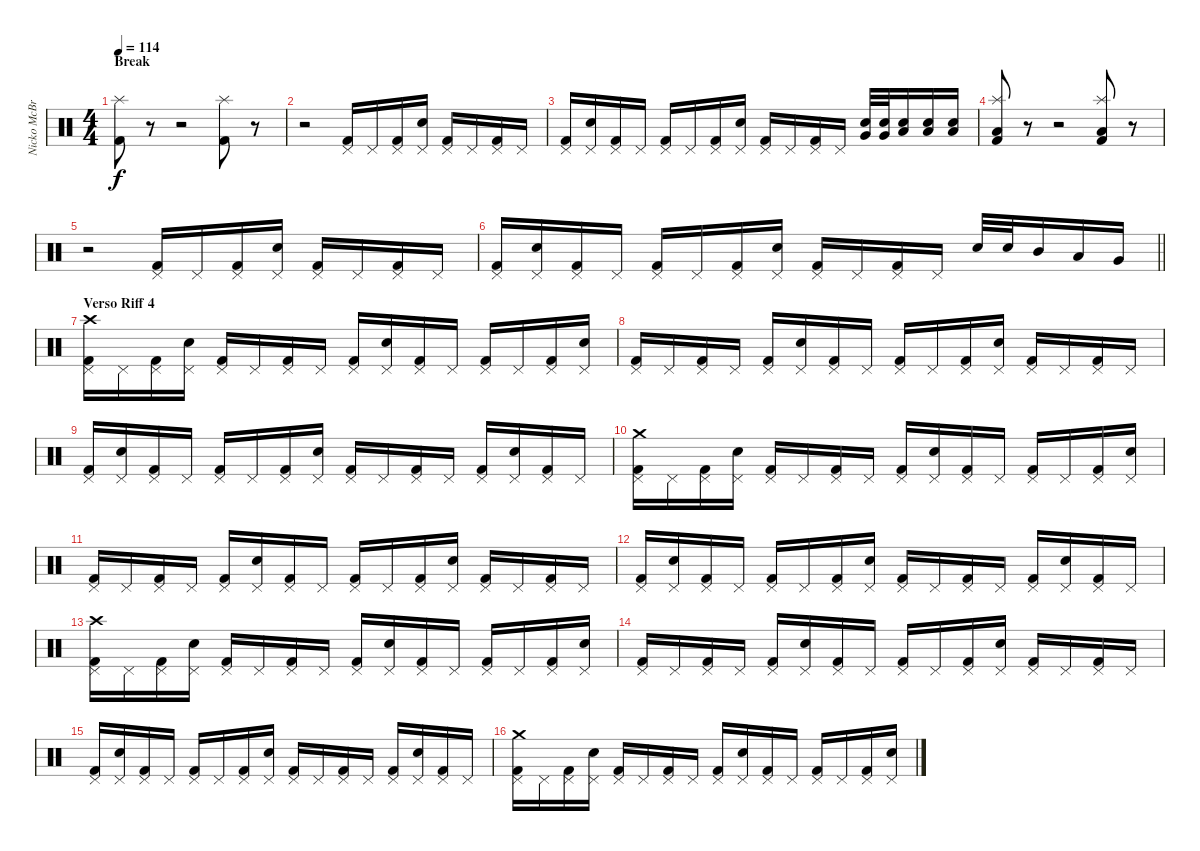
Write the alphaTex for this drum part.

\track ("Nicko McBrain" "Nicko McBr") {instrument percussion}
\staff {score}
\articulation defaults
\ts (4 4)
\section ("" "Break")
\tempo 114
\clef neutral
\ks c
("Kick (hit) 2" "Splash (hit)").8{dy f} r.8 r.2 ("Kick (hit) 2" "Splash (hit)").8 r.8 |
r.2 ("Kick (hit) 2" "Pedal Hi-Hat (hit)").16 "Pedal Hi-Hat (hit)".16 ("Kick (hit) 2" "Pedal Hi-Hat (hit)").16 ("Snare (hit) 2" "Pedal Hi-Hat (hit)").16 ("Kick (hit) 2" "Pedal Hi-Hat (hit)").16 "Pedal Hi-Hat (hit)".16 ("Kick (hit) 2" "Pedal Hi-Hat (hit)").16 "Pedal Hi-Hat (hit)".16 |
("Kick (hit) 2" "Pedal Hi-Hat (hit)").16 ("Snare (hit) 2" "Pedal Hi-Hat (hit)").16 ("Kick (hit) 2" "Pedal Hi-Hat (hit)").16 "Pedal Hi-Hat (hit)".16 ("Kick (hit) 2" "Pedal Hi-Hat (hit)").16 "Pedal Hi-Hat (hit)".16 ("Kick (hit) 2" "Pedal Hi-Hat (hit)").16 ("Snare (hit) 2" "Pedal Hi-Hat (hit)").16 ("Kick (hit) 2" "Pedal Hi-Hat (hit)").16 "Pedal Hi-Hat (hit)".16 ("Kick (hit) 2" "Pedal Hi-Hat (hit)").16 "Pedal Hi-Hat (hit)".16 ("Snare (hit) 2" "Very Low Tom (hit)").32 ("Snare (hit) 2" "Very Low Tom (hit)").32 ("Snare (hit) 2" "Low Floor Tom (hit)").16 ("Snare (hit) 2" "Low Tom (hit)").16 ("Snare (hit) 2" "Low Tom (hit)").16 |
("Low Floor Tom (hit)" "Kick (hit) 2" "Splash (hit)").8 r.8 r.2 ("Low Floor Tom (hit)" "Kick (hit) 2" "Splash (hit)").8 r.8 |
r.2 ("Kick (hit) 2" "Pedal Hi-Hat (hit)").16 "Pedal Hi-Hat (hit)".16 ("Kick (hit) 2" "Pedal Hi-Hat (hit)").16 ("Snare (hit) 2" "Pedal Hi-Hat (hit)").16 ("Kick (hit) 2" "Pedal Hi-Hat (hit)").16 "Pedal Hi-Hat (hit)".16 ("Kick (hit) 2" "Pedal Hi-Hat (hit)").16 "Pedal Hi-Hat (hit)".16 |
\barLineRight lightlight
("Kick (hit) 2" "Pedal Hi-Hat (hit)").16 ("Snare (hit) 2" "Pedal Hi-Hat (hit)").16 ("Kick (hit) 2" "Pedal Hi-Hat (hit)").16 "Pedal Hi-Hat (hit)".16 ("Kick (hit) 2" "Pedal Hi-Hat (hit)").16 "Pedal Hi-Hat (hit)".16 ("Kick (hit) 2" "Pedal Hi-Hat (hit)").16 ("Snare (hit) 2" "Pedal Hi-Hat (hit)").16 ("Kick (hit) 2" "Pedal Hi-Hat (hit)").16 "Pedal Hi-Hat (hit)".16 ("Kick (hit) 2" "Pedal Hi-Hat (hit)").16 "Pedal Hi-Hat (hit)".16 "Snare (hit) 2".32 "Snare (hit) 2".32 "Mid Tom (hit)".16 "Low Tom (hit)".16 "Very Low Tom (hit)".16 |
\section ("" "Verso Riff 4")
("Kick (hit) 2" "Pedal Hi-Hat (hit)" "Crash high (hit)").16 "Pedal Hi-Hat (hit)".16 ("Kick (hit) 2" "Pedal Hi-Hat (hit)").16 ("Snare (hit) 2" "Pedal Hi-Hat (hit)").16 ("Kick (hit) 2" "Pedal Hi-Hat (hit)").16 "Pedal Hi-Hat (hit)".16 ("Kick (hit) 2" "Pedal Hi-Hat (hit)").16 "Pedal Hi-Hat (hit)".16 ("Kick (hit) 2" "Pedal Hi-Hat (hit)").16 ("Snare (hit) 2" "Pedal Hi-Hat (hit)").16 ("Kick (hit) 2" "Pedal Hi-Hat (hit)").16 "Pedal Hi-Hat (hit)".16 ("Kick (hit) 2" "Pedal Hi-Hat (hit)").16 "Pedal Hi-Hat (hit)".16 ("Kick (hit) 2" "Pedal Hi-Hat (hit)").16 ("Snare (hit) 2" "Pedal Hi-Hat (hit)").16 |
("Kick (hit) 2" "Pedal Hi-Hat (hit)").16 "Pedal Hi-Hat (hit)".16 ("Kick (hit) 2" "Pedal Hi-Hat (hit)").16 "Pedal Hi-Hat (hit)".16 ("Kick (hit) 2" "Pedal Hi-Hat (hit)").16 ("Snare (hit) 2" "Pedal Hi-Hat (hit)").16 ("Kick (hit) 2" "Pedal Hi-Hat (hit)").16 "Pedal Hi-Hat (hit)".16 ("Kick (hit) 2" "Pedal Hi-Hat (hit)").16 "Pedal Hi-Hat (hit)".16 ("Kick (hit) 2" "Pedal Hi-Hat (hit)").16 ("Snare (hit) 2" "Pedal Hi-Hat (hit)").16 ("Kick (hit) 2" "Pedal Hi-Hat (hit)").16 "Pedal Hi-Hat (hit)".16 ("Kick (hit) 2" "Pedal Hi-Hat (hit)").16 "Pedal Hi-Hat (hit)".16 |
("Kick (hit) 2" "Pedal Hi-Hat (hit)").16 ("Snare (hit) 2" "Pedal Hi-Hat (hit)").16 ("Kick (hit) 2" "Pedal Hi-Hat (hit)").16 "Pedal Hi-Hat (hit)".16 ("Kick (hit) 2" "Pedal Hi-Hat (hit)").16 "Pedal Hi-Hat (hit)".16 ("Kick (hit) 2" "Pedal Hi-Hat (hit)").16 ("Snare (hit) 2" "Pedal Hi-Hat (hit)").16 ("Kick (hit) 2" "Pedal Hi-Hat (hit)").16 "Pedal Hi-Hat (hit)".16 ("Kick (hit) 2" "Pedal Hi-Hat (hit)").16 "Pedal Hi-Hat (hit)".16 ("Kick (hit) 2" "Pedal Hi-Hat (hit)").16 ("Snare (hit) 2" "Pedal Hi-Hat (hit)").16 ("Kick (hit) 2" "Pedal Hi-Hat (hit)").16 "Pedal Hi-Hat (hit)".16 |
("Kick (hit) 2" "Pedal Hi-Hat (hit)" "Crash medium (hit)").16 "Pedal Hi-Hat (hit)".16 ("Kick (hit) 2" "Pedal Hi-Hat (hit)").16 ("Snare (hit) 2" "Pedal Hi-Hat (hit)").16 ("Kick (hit) 2" "Pedal Hi-Hat (hit)").16 "Pedal Hi-Hat (hit)".16 ("Kick (hit) 2" "Pedal Hi-Hat (hit)").16 "Pedal Hi-Hat (hit)".16 ("Kick (hit) 2" "Pedal Hi-Hat (hit)").16 ("Snare (hit) 2" "Pedal Hi-Hat (hit)").16 ("Kick (hit) 2" "Pedal Hi-Hat (hit)").16 "Pedal Hi-Hat (hit)".16 ("Kick (hit) 2" "Pedal Hi-Hat (hit)").16 "Pedal Hi-Hat (hit)".16 ("Kick (hit) 2" "Pedal Hi-Hat (hit)").16 ("Snare (hit) 2" "Pedal Hi-Hat (hit)").16 |
("Kick (hit) 2" "Pedal Hi-Hat (hit)").16 "Pedal Hi-Hat (hit)".16 ("Kick (hit) 2" "Pedal Hi-Hat (hit)").16 "Pedal Hi-Hat (hit)".16 ("Kick (hit) 2" "Pedal Hi-Hat (hit)").16 ("Snare (hit) 2" "Pedal Hi-Hat (hit)").16 ("Kick (hit) 2" "Pedal Hi-Hat (hit)").16 "Pedal Hi-Hat (hit)".16 ("Kick (hit) 2" "Pedal Hi-Hat (hit)").16 "Pedal Hi-Hat (hit)".16 ("Kick (hit) 2" "Pedal Hi-Hat (hit)").16 ("Snare (hit) 2" "Pedal Hi-Hat (hit)").16 ("Kick (hit) 2" "Pedal Hi-Hat (hit)").16 "Pedal Hi-Hat (hit)".16 ("Kick (hit) 2" "Pedal Hi-Hat (hit)").16 "Pedal Hi-Hat (hit)".16 |
("Kick (hit) 2" "Pedal Hi-Hat (hit)").16 ("Snare (hit) 2" "Pedal Hi-Hat (hit)").16 ("Kick (hit) 2" "Pedal Hi-Hat (hit)").16 "Pedal Hi-Hat (hit)".16 ("Kick (hit) 2" "Pedal Hi-Hat (hit)").16 "Pedal Hi-Hat (hit)".16 ("Kick (hit) 2" "Pedal Hi-Hat (hit)").16 ("Snare (hit) 2" "Pedal Hi-Hat (hit)").16 ("Kick (hit) 2" "Pedal Hi-Hat (hit)").16 "Pedal Hi-Hat (hit)".16 ("Kick (hit) 2" "Pedal Hi-Hat (hit)").16 "Pedal Hi-Hat (hit)".16 ("Kick (hit) 2" "Pedal Hi-Hat (hit)").16 ("Snare (hit) 2" "Pedal Hi-Hat (hit)").16 ("Kick (hit) 2" "Pedal Hi-Hat (hit)").16 "Pedal Hi-Hat (hit)".16 |
("Kick (hit) 2" "Pedal Hi-Hat (hit)" "Crash high (hit)").16 "Pedal Hi-Hat (hit)".16 ("Kick (hit) 2" "Pedal Hi-Hat (hit)").16 ("Snare (hit) 2" "Pedal Hi-Hat (hit)").16 ("Kick (hit) 2" "Pedal Hi-Hat (hit)").16 "Pedal Hi-Hat (hit)".16 ("Kick (hit) 2" "Pedal Hi-Hat (hit)").16 "Pedal Hi-Hat (hit)".16 ("Kick (hit) 2" "Pedal Hi-Hat (hit)").16 ("Snare (hit) 2" "Pedal Hi-Hat (hit)").16 ("Kick (hit) 2" "Pedal Hi-Hat (hit)").16 "Pedal Hi-Hat (hit)".16 ("Kick (hit) 2" "Pedal Hi-Hat (hit)").16 "Pedal Hi-Hat (hit)".16 ("Kick (hit) 2" "Pedal Hi-Hat (hit)").16 ("Snare (hit) 2" "Pedal Hi-Hat (hit)").16 |
("Kick (hit) 2" "Pedal Hi-Hat (hit)").16 "Pedal Hi-Hat (hit)".16 ("Kick (hit) 2" "Pedal Hi-Hat (hit)").16 "Pedal Hi-Hat (hit)".16 ("Kick (hit) 2" "Pedal Hi-Hat (hit)").16 ("Snare (hit) 2" "Pedal Hi-Hat (hit)").16 ("Kick (hit) 2" "Pedal Hi-Hat (hit)").16 "Pedal Hi-Hat (hit)".16 ("Kick (hit) 2" "Pedal Hi-Hat (hit)").16 "Pedal Hi-Hat (hit)".16 ("Kick (hit) 2" "Pedal Hi-Hat (hit)").16 ("Snare (hit) 2" "Pedal Hi-Hat (hit)").16 ("Kick (hit) 2" "Pedal Hi-Hat (hit)").16 "Pedal Hi-Hat (hit)".16 ("Kick (hit) 2" "Pedal Hi-Hat (hit)").16 "Pedal Hi-Hat (hit)".16 |
("Kick (hit) 2" "Pedal Hi-Hat (hit)").16 ("Snare (hit) 2" "Pedal Hi-Hat (hit)").16 ("Kick (hit) 2" "Pedal Hi-Hat (hit)").16 "Pedal Hi-Hat (hit)".16 ("Kick (hit) 2" "Pedal Hi-Hat (hit)").16 "Pedal Hi-Hat (hit)".16 ("Kick (hit) 2" "Pedal Hi-Hat (hit)").16 ("Snare (hit) 2" "Pedal Hi-Hat (hit)").16 ("Kick (hit) 2" "Pedal Hi-Hat (hit)").16 "Pedal Hi-Hat (hit)".16 ("Kick (hit) 2" "Pedal Hi-Hat (hit)").16 "Pedal Hi-Hat (hit)".16 ("Kick (hit) 2" "Pedal Hi-Hat (hit)").16 ("Snare (hit) 2" "Pedal Hi-Hat (hit)").16 ("Kick (hit) 2" "Pedal Hi-Hat (hit)").16 "Pedal Hi-Hat (hit)".16 |
("Kick (hit) 2" "Pedal Hi-Hat (hit)" "Crash medium (hit)").16 "Pedal Hi-Hat (hit)".16 ("Kick (hit) 2" "Pedal Hi-Hat (hit)").16 ("Snare (hit) 2" "Pedal Hi-Hat (hit)").16 ("Kick (hit) 2" "Pedal Hi-Hat (hit)").16 "Pedal Hi-Hat (hit)".16 ("Kick (hit) 2" "Pedal Hi-Hat (hit)").16 "Pedal Hi-Hat (hit)".16 ("Kick (hit) 2" "Pedal Hi-Hat (hit)").16 ("Snare (hit) 2" "Pedal Hi-Hat (hit)").16 ("Kick (hit) 2" "Pedal Hi-Hat (hit)").16 "Pedal Hi-Hat (hit)".16 ("Kick (hit) 2" "Pedal Hi-Hat (hit)").16 "Pedal Hi-Hat (hit)".16 ("Kick (hit) 2" "Pedal Hi-Hat (hit)").16 ("Snare (hit) 2" "Pedal Hi-Hat (hit)").16
